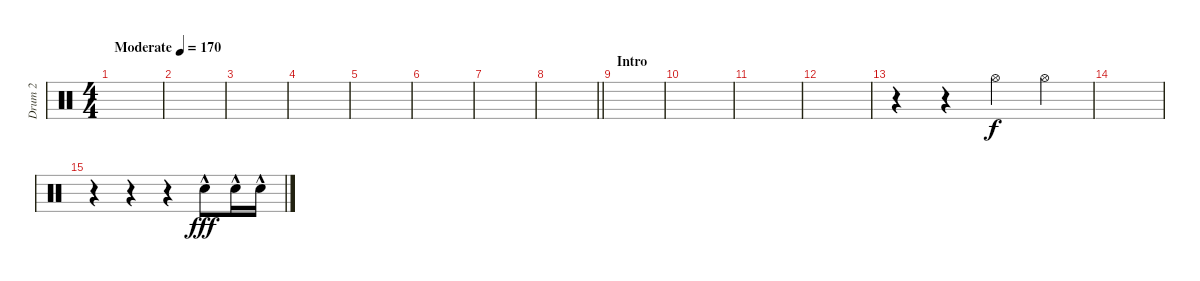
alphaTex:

\track ("Drum 2" "Drum 2") {instrument percussion}
\staff {score}
\articulation defaults
\ts (4 4)
\tempo (170 "Moderate")
\clef neutral
\ks c
|
|
|
|
|
|
|
\barLineRight lightlight
|
\section ("" "Intro")
|
|
|
|
r.4 r.4 "Hi-Hat (open)".4 "Hi-Hat (open)".4 |
|
r.4 r.4 r.4 "Electric Snare (hit)"{hac}.8{dy fff} "Electric Snare (hit)"{hac}.16 "Electric Snare (hit)"{hac}.16
